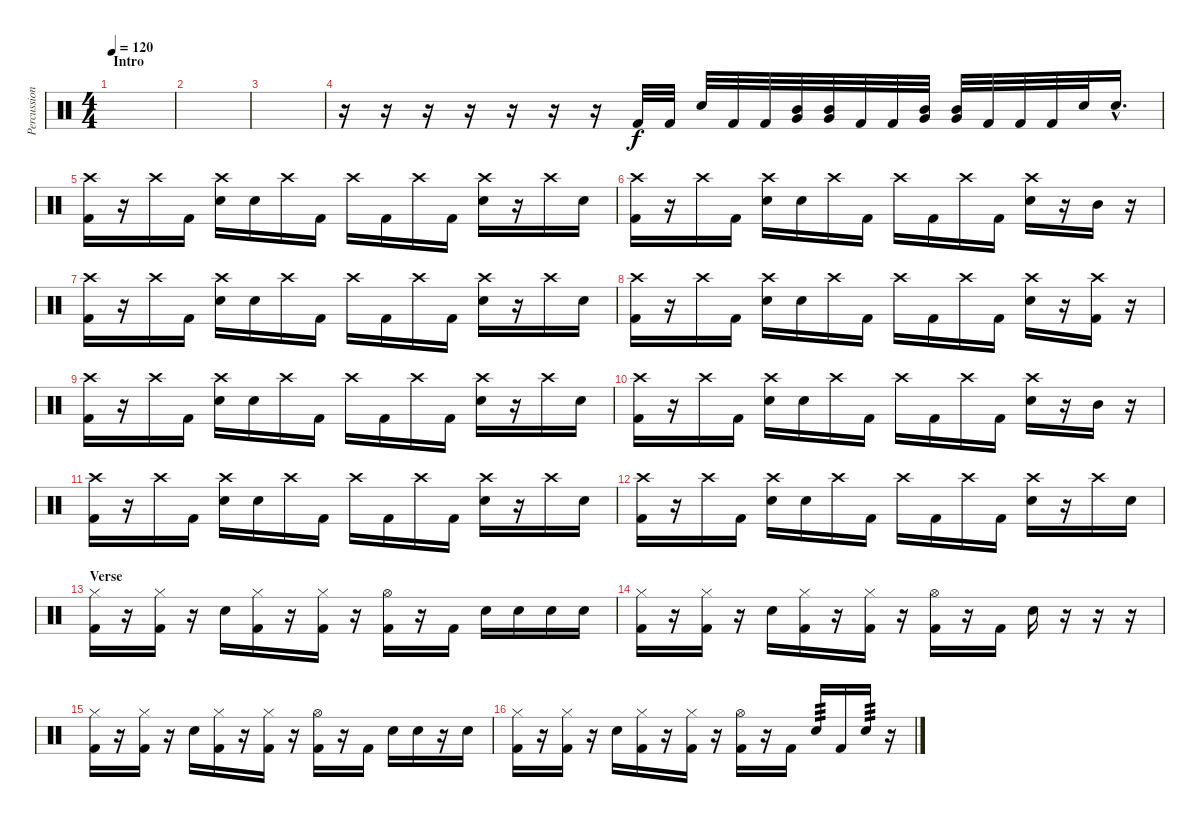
\track ("Percussion" "Percussion") {instrument percussion}
\staff {score}
\articulation defaults
\ts (4 4)
\section ("" "Intro")
\tempo 120
\clef neutral
\ks c
|
|
|
r.16 r.16 r.16 r.16 r.16 r.16 r.16 "Kick (hit) 2".32 "Kick (hit) 2".32 "Electric Snare (hit)"{tr (40 64)}.32 "Kick (hit) 2".32 "Kick (hit) 2".32 ("Mid Tom (hit)" "Very Low Tom (hit)").32 ("Mid Tom (hit)" "Very Low Tom (hit)").32 "Kick (hit) 2".32 "Kick (hit) 2".32 ("Mid Tom (hit)" "Very Low Tom (hit)").32 ("Mid Tom (hit)" "Very Low Tom (hit)").32 "Kick (hit) 2".32 "Kick (hit) 2".32 "Kick (hit) 2".32 "Electric Snare (hit)".32 "Electric Snare (hit)"{hac}.16{d} |
("Crash high (hit)" "Kick (hit) 2").16 r.16 "Crash high (hit)".16 "Kick (hit) 2".16 ("Crash high (hit)" "Electric Snare (hit)").16 "Electric Snare (hit)".16 "Crash high (hit)".16 "Kick (hit) 2".16 "Crash high (hit)".16 "Kick (hit) 2".16 "Crash high (hit)".16 "Kick (hit) 2".16 ("Crash high (hit)" "Electric Snare (hit)").16 r.16 "Crash high (hit)".16 "Electric Snare (hit)".16 |
("Crash high (hit)" "Kick (hit) 2").16 r.16 "Crash high (hit)".16 "Kick (hit) 2".16 ("Crash high (hit)" "Electric Snare (hit)").16 "Electric Snare (hit)".16 "Crash high (hit)".16 "Kick (hit) 2".16 "Crash high (hit)".16 "Kick (hit) 2".16 "Crash high (hit)".16 "Kick (hit) 2".16 ("Crash high (hit)" "Electric Snare (hit)").16 r.16 "Mid Tom (hit)".16 r.16 |
("Crash high (hit)" "Kick (hit) 2").16 r.16 "Crash high (hit)".16 "Kick (hit) 2".16 ("Crash high (hit)" "Electric Snare (hit)").16 "Electric Snare (hit)".16 "Crash high (hit)".16 "Kick (hit) 2".16 "Crash high (hit)".16 "Kick (hit) 2".16 "Crash high (hit)".16 "Kick (hit) 2".16 ("Crash high (hit)" "Electric Snare (hit)").16 r.16 "Crash high (hit)".16 "Electric Snare (hit)".16 |
("Crash high (hit)" "Kick (hit) 2").16 r.16 "Crash high (hit)".16 "Kick (hit) 2".16 ("Crash high (hit)" "Electric Snare (hit)").16 "Electric Snare (hit)".16 "Crash high (hit)".16 "Kick (hit) 2".16 "Crash high (hit)".16 "Kick (hit) 2".16 "Crash high (hit)".16 "Kick (hit) 2".16 ("Crash high (hit)" "Electric Snare (hit)").16 r.16 ("Crash high (hit)" "Kick (hit) 2").16 r.16 |
("Crash high (hit)" "Kick (hit) 2").16 r.16 "Crash high (hit)".16 "Kick (hit) 2".16 ("Crash high (hit)" "Electric Snare (hit)").16 "Electric Snare (hit)".16 "Crash high (hit)".16 "Kick (hit) 2".16 "Crash high (hit)".16 "Kick (hit) 2".16 "Crash high (hit)".16 "Kick (hit) 2".16 ("Crash high (hit)" "Electric Snare (hit)").16 r.16 "Crash high (hit)".16 "Electric Snare (hit)".16 |
("Crash high (hit)" "Kick (hit) 2").16 r.16 "Crash high (hit)".16 "Kick (hit) 2".16 ("Crash high (hit)" "Electric Snare (hit)").16 "Electric Snare (hit)".16 "Crash high (hit)".16 "Kick (hit) 2".16 "Crash high (hit)".16 "Kick (hit) 2".16 "Crash high (hit)".16 "Kick (hit) 2".16 ("Crash high (hit)" "Electric Snare (hit)").16 r.16 "Mid Tom (hit)".16 r.16 |
("Crash high (hit)" "Kick (hit) 2").16 r.16 "Crash high (hit)".16 "Kick (hit) 2".16 ("Crash high (hit)" "Electric Snare (hit)").16 "Electric Snare (hit)".16 "Crash high (hit)".16 "Kick (hit) 2".16 "Crash high (hit)".16 "Kick (hit) 2".16 "Crash high (hit)".16 "Kick (hit) 2".16 ("Crash high (hit)" "Electric Snare (hit)").16 r.16 "Crash high (hit)".16 "Electric Snare (hit)".16 |
("Crash high (hit)" "Kick (hit) 2").16 r.16 "Crash high (hit)".16 "Kick (hit) 2".16 ("Crash high (hit)" "Electric Snare (hit)").16 "Electric Snare (hit)".16 "Crash high (hit)".16 "Kick (hit) 2".16 "Crash high (hit)".16 "Kick (hit) 2".16 "Crash high (hit)".16 "Kick (hit) 2".16 ("Crash high (hit)" "Electric Snare (hit)").16 r.16 "Crash high (hit)".16 "Electric Snare (hit)".16 |
\section ("" "Verse")
("Hi-Hat (closed)" "Kick (hit) 2").16 r.16 ("Hi-Hat (closed)" "Kick (hit) 2").16 r.16 "Electric Snare (hit)".16 ("Hi-Hat (closed)" "Kick (hit) 2").16 r.16 ("Hi-Hat (closed)" "Kick (hit) 2").16 r.16 ("Hi-Hat (open)" "Kick (hit) 2").16 r.16 "Kick (hit) 2".16 "Electric Snare (hit)".16 "Electric Snare (hit)".16 "Electric Snare (hit)".16 "Electric Snare (hit)".16 |
("Hi-Hat (closed)" "Kick (hit) 2").16 r.16 ("Hi-Hat (closed)" "Kick (hit) 2").16 r.16 "Electric Snare (hit)".16 ("Hi-Hat (closed)" "Kick (hit) 2").16 r.16 ("Hi-Hat (closed)" "Kick (hit) 2").16 r.16 ("Hi-Hat (open)" "Kick (hit) 2").16 r.16 "Kick (hit) 2".16 "Electric Snare (hit)".16 r.16 r.16 r.16 |
("Hi-Hat (closed)" "Kick (hit) 2").16 r.16 ("Hi-Hat (closed)" "Kick (hit) 2").16 r.16 "Electric Snare (hit)".16 ("Hi-Hat (closed)" "Kick (hit) 2").16 r.16 ("Hi-Hat (closed)" "Kick (hit) 2").16 r.16 ("Hi-Hat (open)" "Kick (hit) 2").16 r.16 "Kick (hit) 2".16 "Electric Snare (hit)".16 "Electric Snare (hit)".16 r.16 "Electric Snare (hit)".16 |
("Hi-Hat (closed)" "Kick (hit) 2").16 r.16 ("Hi-Hat (closed)" "Kick (hit) 2").16 r.16 "Electric Snare (hit)".16 ("Hi-Hat (closed)" "Kick (hit) 2").16 r.16 ("Hi-Hat (closed)" "Kick (hit) 2").16 r.16 ("Hi-Hat (open)" "Kick (hit) 2").16 r.16 "Kick (hit) 2".16 "Electric Snare (hit)".16{tp 3} "Kick (hit) 2".16 "Electric Snare (hit)".16{tp 3} r.16
